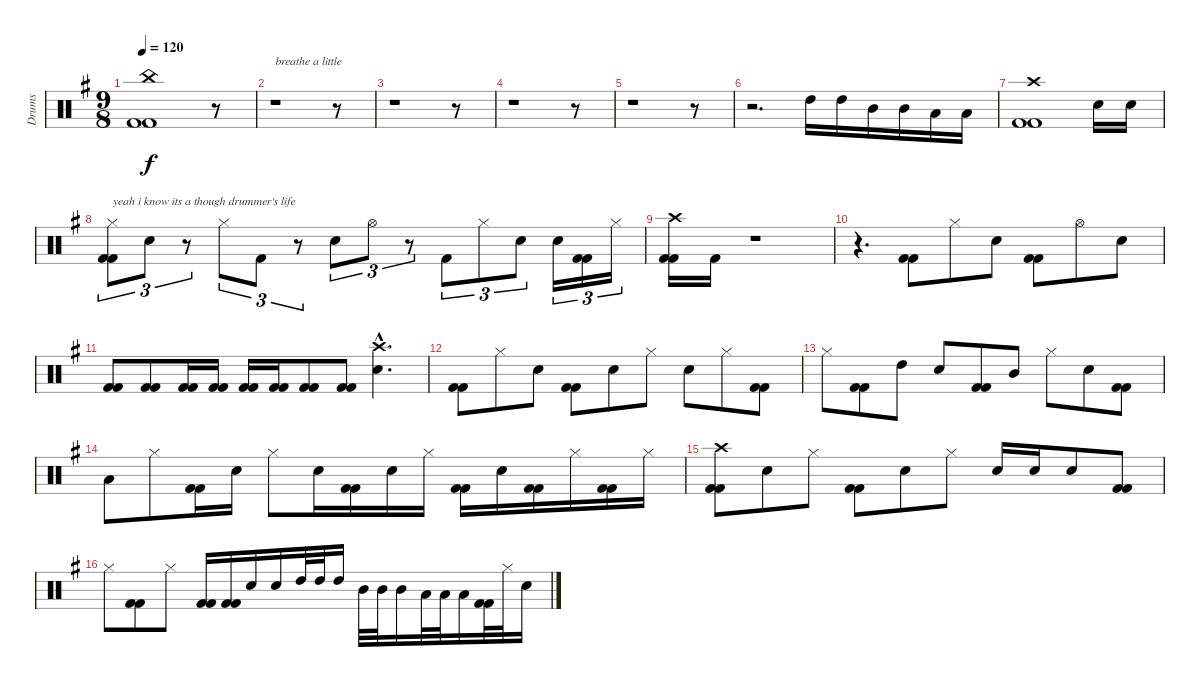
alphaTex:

\track ("Drums" "Drums") {instrument percussion}
\staff {score}
\articulation defaults
\ts (9 8)
\tempo 120
\clef neutral
\ks g
("China (hit)" "Kick (hit) 2" "Kick (hit) 2").1{dy f} r.8 |
r.1{txt "breathe a little"} r.8 |
r.1 r.8 |
r.1 r.8 |
r.1 r.8 |
r.2{d} "High Tom (hit)".16 "High Tom (hit)".16 "Mid Tom (hit)".16 "Mid Tom (hit)".16 "Low Tom (hit)".16 "Low Tom (hit)".16 |
("Crash high (hit)" "Kick (hit) 2" "Kick (hit) 2").1 "Electric Snare (hit)".16 "Electric Snare (hit)".16 |
("Hi-Hat (closed)" "Kick (hit) 2" "Kick (hit) 2").8{tu (3 2) txt "yeah i know its a though drummer's life"} "Electric Snare (hit)".8{tu (3 2)} r.8{tu (3 2)} "Hi-Hat (closed)".8{tu (3 2)} "Kick (hit) 2".8{tu (3 2)} r.8{tu (3 2)} "Electric Snare (hit)".8{tu (3 2)} "Hi-Hat (open)".8{tu (3 2)} r.8{tu (3 2)} "Kick (hit) 2".8{tu (3 2)} "Hi-Hat (closed)".8{tu (3 2)} "Electric Snare (hit)".8{tu (3 2)} "Electric Snare (hit)".16{tu (3 2)} ("Kick (hit) 2" "Kick (hit) 2").16{tu (3 2)} "Hi-Hat (closed)".16{tu (3 2)} |
("Crash high (hit)" "Kick (hit) 2" "Kick (hit) 2").16 "Kick (hit) 2".16 r.1 |
r.4{d} ("Kick (hit) 2" "Kick (hit) 2").8 "Hi-Hat (closed)".8 "Electric Snare (hit)".8 ("Kick (hit) 2" "Kick (hit) 2").8 "Hi-Hat (open)".8 "Snare (hit) 2".8 |
("Kick (hit) 2" "Kick (hit) 2").8 ("Kick (hit) 2" "Kick (hit) 2").8 ("Kick (hit) 2" "Kick (hit) 2").16 ("Kick (hit) 2" "Kick (hit) 2").16 ("Kick (hit) 2" "Kick (hit) 2").16 ("Kick (hit) 2" "Kick (hit) 2").16 ("Kick (hit) 2" "Kick (hit) 2").8 ("Kick (hit) 2" "Kick (hit) 2").8 ("Crash high (hit)"{hac} "Snare (hit) 2"{hac}).4{d} |
("Kick (hit) 2" "Kick (hit) 2").8 "Hi-Hat (closed)".8 "Electric Snare (hit)".8 ("Kick (hit) 2" "Kick (hit) 2").8 "Electric Snare (hit)".8 "Hi-Hat (closed)".8 "Electric Snare (hit)".8 "Hi-Hat (closed)".8 ("Kick (hit) 2" "Kick (hit) 2").8 |
"Hi-Hat (closed)".8 ("Kick (hit) 2" "Kick (hit) 2").8 "High Tom (hit)".8 "Electric Snare (hit)".8 ("Kick (hit) 2" "Kick (hit) 2").8 "Mid Tom (hit)".8 "Hi-Hat (closed)".8 "Electric Snare (hit)".8 ("Kick (hit) 2" "Kick (hit) 2").8 |
"Low Tom (hit)".8 "Hi-Hat (closed)".8 ("Kick (hit) 2" "Kick (hit) 2").16 "Electric Snare (hit)".16 "Hi-Hat (closed)".8 "Electric Snare (hit)".16 ("Kick (hit) 2" "Kick (hit) 2").16 "Electric Snare (hit)".16 "Hi-Hat (closed)".16 ("Kick (hit) 2" "Kick (hit) 2").16 "Electric Snare (hit)".16 ("Kick (hit) 2" "Kick (hit) 2").16 "Hi-Hat (closed)".16 ("Kick (hit) 2" "Kick (hit) 2").16 "Hi-Hat (closed)".16 |
("Crash high (hit)" "Kick (hit) 2" "Kick (hit) 2").8 "Electric Snare (hit)".8 "Hi-Hat (closed)".8 ("Kick (hit) 2" "Kick (hit) 2").8 "Electric Snare (hit)".8 "Hi-Hat (closed)".8 "Electric Snare (hit)".16 "Electric Snare (hit)".16 "Electric Snare (hit)".8 ("Kick (hit) 2" "Kick (hit) 2").8 |
"Hi-Hat (closed)".8 ("Kick (hit) 2" "Kick (hit) 2").8 "Hi-Hat (closed)".8 ("Kick (hit) 2" "Kick (hit) 2").16 ("Kick (hit) 2" "Kick (hit) 2").16 "Snare (hit) 2".16 "Snare (hit) 2".16 "High Tom (hit)".32 "High Tom (hit)".32 "High Tom (hit)".16 "Mid Tom (hit)".32 "Mid Tom (hit)".32 "Mid Tom (hit)".16 "Low Tom (hit)".32 "Low Tom (hit)".32 "Low Tom (hit)".16 ("Kick (hit) 2" "Kick (hit) 2").32 "Hi-Hat (closed)".32 "Electric Snare (hit)".16
